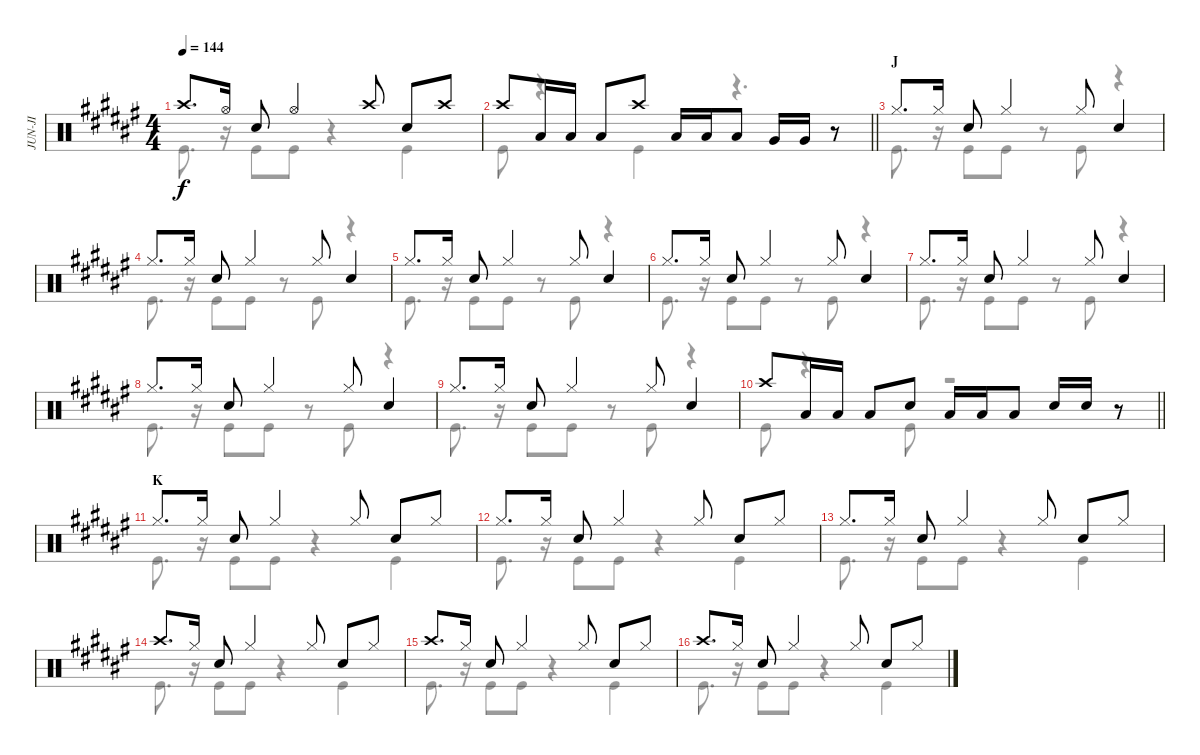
\track ("JUN-JI" "JUN-JI") {instrument percussion}
\staff {score}
\articulation defaults
\voice
\ts (4 4)
\tempo 144
\clef neutral
\ks d#minor "Crash high (hit)".8{d dy f} "Hi-Hat (open)".16 "Snare (hit) 2".8 "Hi-Hat (open)".4 "Crash high (hit)".8 "Snare (hit) 2".8 "Crash high (hit)".8
|
\barLineRight lightlight "Crash high (hit)".8 "Low Tom (hit)".16 "Low Tom (hit)".16 "Low Tom (hit)".8 "Crash high (hit)".8 "Low Tom (hit)".16 "Low Tom (hit)".16 "Low Tom (hit)".8 "Very Low Tom (hit)".16 "Very Low Tom (hit)".16
r.8 |
\section ("" "J")
"Hi-Hat (closed)".8{d} "Hi-Hat (closed)".16 "Snare (hit) 2".8 "Hi-Hat (closed)".4 "Hi-Hat (closed)".8 "Snare (hit) 2".4 |
"Hi-Hat (closed)".8{d} "Hi-Hat (closed)".16 "Snare (hit) 2".8 "Hi-Hat (closed)".4 "Hi-Hat (closed)".8 "Snare (hit) 2".4 |
"Hi-Hat (closed)".8{d} "Hi-Hat (closed)".16 "Snare (hit) 2".8 "Hi-Hat (closed)".4 "Hi-Hat (closed)".8 "Snare (hit) 2".4 |
"Hi-Hat (closed)".8{d} "Hi-Hat (closed)".16 "Snare (hit) 2".8 "Hi-Hat (closed)".4 "Hi-Hat (closed)".8 "Snare (hit) 2".4 |
"Hi-Hat (closed)".8{d} "Hi-Hat (closed)".16 "Snare (hit) 2".8 "Hi-Hat (closed)".4 "Hi-Hat (closed)".8 "Snare (hit) 2".4 |
"Hi-Hat (closed)".8{d} "Hi-Hat (closed)".16 "Snare (hit) 2".8 "Hi-Hat (closed)".4 "Hi-Hat (closed)".8 "Snare (hit) 2".4 |
"Hi-Hat (closed)".8{d} "Hi-Hat (closed)".16 "Snare (hit) 2".8 "Hi-Hat (closed)".4 "Hi-Hat (closed)".8 "Snare (hit) 2".4 |
\barLineRight lightlight "Crash high (hit)".8 "Low Tom (hit)".16 "Low Tom (hit)".16 "Low Tom (hit)".8 "Snare (hit) 2".8 "Low Tom (hit)".16 "Low Tom (hit)".16 "Low Tom (hit)".8 "Snare (hit) 2".16 "Snare (hit) 2".16
r.8 |
\section ("" "K")
"Hi-Hat (closed)".8{d} "Hi-Hat (closed)".16 "Snare (hit) 2".8 "Hi-Hat (closed)".4 "Hi-Hat (closed)".8 "Snare (hit) 2".8 "Hi-Hat (closed)".8 |
"Hi-Hat (closed)".8{d} "Hi-Hat (closed)".16 "Snare (hit) 2".8 "Hi-Hat (closed)".4 "Hi-Hat (closed)".8 "Snare (hit) 2".8 "Hi-Hat (closed)".8 |
"Hi-Hat (closed)".8{d} "Hi-Hat (closed)".16 "Snare (hit) 2".8 "Hi-Hat (closed)".4 "Hi-Hat (closed)".8 "Snare (hit) 2".8 "Hi-Hat (closed)".8 |
"Crash high (hit)".8{d} "Hi-Hat (closed)".16 "Snare (hit) 2".8 "Hi-Hat (closed)".4 "Hi-Hat (closed)".8 "Snare (hit) 2".8 "Hi-Hat (closed)".8 |
"Crash high (hit)".8{d} "Hi-Hat (closed)".16 "Snare (hit) 2".8 "Hi-Hat (closed)".4 "Hi-Hat (closed)".8 "Snare (hit) 2".8 "Hi-Hat (closed)".8 |
"Crash high (hit)".8{d} "Hi-Hat (closed)".16 "Snare (hit) 2".8 "Hi-Hat (closed)".4 "Hi-Hat (closed)".8 "Snare (hit) 2".8 "Hi-Hat (closed)".8
\voice
\clef neutral
\ottava regular
\simile none
\ks d#minor "Kick (hit)".8{d dy f}
r.16 "Kick (hit)".8 "Kick (hit)".8 r.4 "Kick (hit)".4 |
\barLineRight lightlight "Kick (hit)".8
r.4 "Kick (hit)".4 r.4{d} |
"Kick (hit)".8{d} r.16 "Kick (hit)".8 "Kick (hit)".8 r.8 "Kick (hit)".8 r.4 |
"Kick (hit)".8{d} r.16 "Kick (hit)".8 "Kick (hit)".8 r.8 "Kick (hit)".8 r.4 |
"Kick (hit)".8{d} r.16 "Kick (hit)".8 "Kick (hit)".8 r.8 "Kick (hit)".8 r.4 |
"Kick (hit)".8{d} r.16 "Kick (hit)".8 "Kick (hit)".8 r.8 "Kick (hit)".8 r.4 |
"Kick (hit)".8{d} r.16 "Kick (hit)".8 "Kick (hit)".8 r.8 "Kick (hit)".8 r.4 |
"Kick (hit)".8{d} r.16 "Kick (hit)".8 "Kick (hit)".8 r.8 "Kick (hit)".8 r.4 |
"Kick (hit)".8{d} r.16 "Kick (hit)".8 "Kick (hit)".8 r.8 "Kick (hit)".8 r.4 |
\barLineRight lightlight "Kick (hit)".8
r.4 "Kick (hit)".8 r.2 |
"Kick (hit)".8{d} r.16 "Kick (hit)".8 "Kick (hit)".8 r.4 "Kick (hit)".4 |
"Kick (hit)".8{d} r.16 "Kick (hit)".8 "Kick (hit)".8 r.4 "Kick (hit)".4 |
"Kick (hit)".8{d} r.16 "Kick (hit)".8 "Kick (hit)".8 r.4 "Kick (hit)".4 |
"Kick (hit)".8{d} r.16 "Kick (hit)".8 "Kick (hit)".8 r.4 "Kick (hit)".4 |
"Kick (hit)".8{d} r.16 "Kick (hit)".8 "Kick (hit)".8 r.4 "Kick (hit)".4 |
"Kick (hit)".8{d} r.16 "Kick (hit)".8 "Kick (hit)".8 r.4 "Kick (hit)".4
